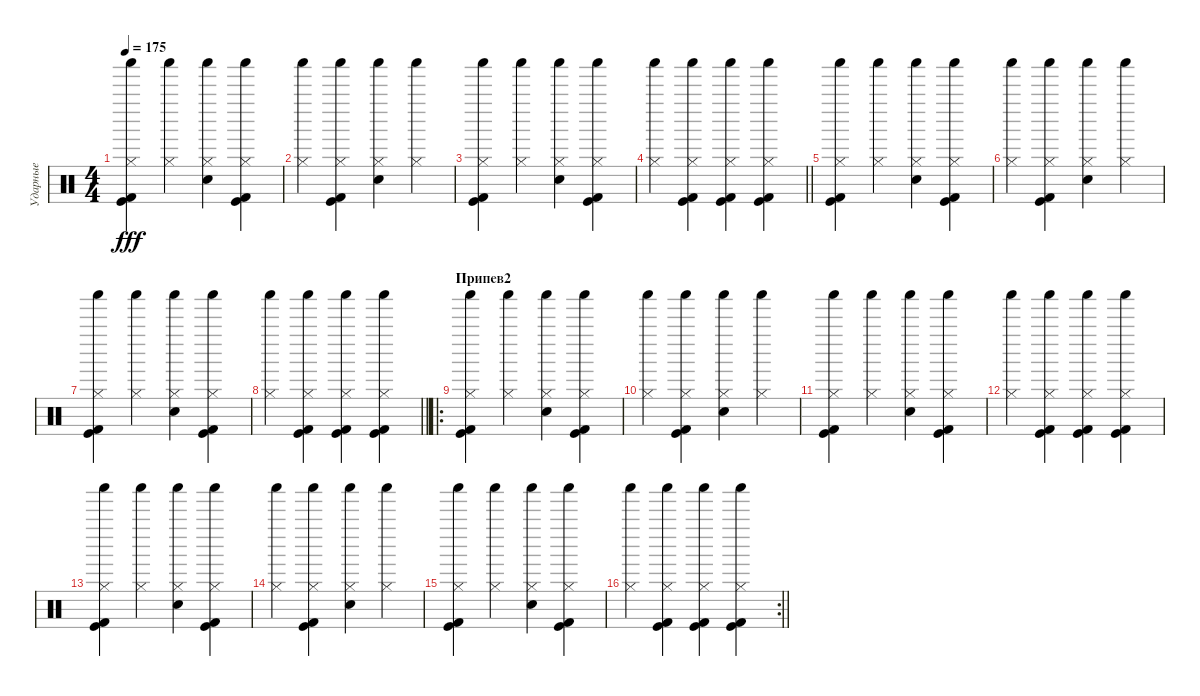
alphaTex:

\track ("Ударные" "Ударные") {instrument percussion}
\staff {score}
\articulation defaults
\ts (4 4)
\tempo 175
\clef neutral
\ks c
("Kick (hit) 2" "Hi-Hat (closed)" "Kick (hit)" "Shaker (hit)").4{dy fff} ("Hi-Hat (closed)" "Shaker (hit)").4 ("Hi-Hat (closed)" "Snare (hit) 2" "Shaker (hit)").4 ("Kick (hit) 2" "Hi-Hat (closed)" "Kick (hit)" "Shaker (hit)").4 |
("Hi-Hat (closed)" "Shaker (hit)").4 ("Kick (hit) 2" "Hi-Hat (closed)" "Kick (hit)" "Shaker (hit)").4 ("Hi-Hat (closed)" "Snare (hit) 2" "Shaker (hit)").4 ("Hi-Hat (closed)" "Shaker (hit)").4 |
("Kick (hit) 2" "Hi-Hat (closed)" "Kick (hit)" "Shaker (hit)").4 ("Hi-Hat (closed)" "Shaker (hit)").4 ("Hi-Hat (closed)" "Snare (hit) 2" "Shaker (hit)").4 ("Kick (hit) 2" "Hi-Hat (closed)" "Kick (hit)" "Shaker (hit)").4 |
\barLineRight lightlight
("Hi-Hat (closed)" "Shaker (hit)").4 ("Kick (hit) 2" "Hi-Hat (closed)" "Kick (hit)" "Shaker (hit)").4 ("Kick (hit) 2" "Hi-Hat (closed)" "Kick (hit)" "Shaker (hit)").4 ("Kick (hit) 2" "Hi-Hat (closed)" "Kick (hit)" "Shaker (hit)").4 |
("Kick (hit) 2" "Hi-Hat (closed)" "Kick (hit)" "Shaker (hit)").4 ("Hi-Hat (closed)" "Shaker (hit)").4 ("Hi-Hat (closed)" "Snare (hit) 2" "Shaker (hit)").4 ("Kick (hit) 2" "Hi-Hat (closed)" "Kick (hit)" "Shaker (hit)").4 |
("Hi-Hat (closed)" "Shaker (hit)").4 ("Kick (hit) 2" "Hi-Hat (closed)" "Kick (hit)" "Shaker (hit)").4 ("Hi-Hat (closed)" "Snare (hit) 2" "Shaker (hit)").4 ("Hi-Hat (closed)" "Shaker (hit)").4 |
("Kick (hit) 2" "Hi-Hat (closed)" "Kick (hit)" "Shaker (hit)").4 ("Hi-Hat (closed)" "Shaker (hit)").4 ("Hi-Hat (closed)" "Snare (hit) 2" "Shaker (hit)").4 ("Kick (hit) 2" "Hi-Hat (closed)" "Kick (hit)" "Shaker (hit)").4 |
\barLineRight lightlight
("Hi-Hat (closed)" "Shaker (hit)").4 ("Kick (hit) 2" "Hi-Hat (closed)" "Kick (hit)" "Shaker (hit)").4 ("Kick (hit) 2" "Hi-Hat (closed)" "Kick (hit)" "Shaker (hit)").4 ("Kick (hit) 2" "Hi-Hat (closed)" "Kick (hit)" "Shaker (hit)").4 |
\ro
\section ("" "Припев2")
("Kick (hit) 2" "Hi-Hat (closed)" "Kick (hit)" "Shaker (hit)").4 ("Hi-Hat (closed)" "Shaker (hit)").4 ("Hi-Hat (closed)" "Snare (hit) 2" "Shaker (hit)").4 ("Kick (hit) 2" "Hi-Hat (closed)" "Kick (hit)" "Shaker (hit)").4 |
("Hi-Hat (closed)" "Shaker (hit)").4 ("Kick (hit) 2" "Hi-Hat (closed)" "Kick (hit)" "Shaker (hit)").4 ("Hi-Hat (closed)" "Snare (hit) 2" "Shaker (hit)").4 ("Hi-Hat (closed)" "Shaker (hit)").4 |
("Kick (hit) 2" "Hi-Hat (closed)" "Kick (hit)" "Shaker (hit)").4 ("Hi-Hat (closed)" "Shaker (hit)").4 ("Hi-Hat (closed)" "Snare (hit) 2" "Shaker (hit)").4 ("Kick (hit) 2" "Hi-Hat (closed)" "Kick (hit)" "Shaker (hit)").4 |
("Hi-Hat (closed)" "Shaker (hit)").4 ("Kick (hit) 2" "Hi-Hat (closed)" "Kick (hit)" "Shaker (hit)").4 ("Kick (hit) 2" "Hi-Hat (closed)" "Kick (hit)" "Shaker (hit)").4 ("Kick (hit) 2" "Hi-Hat (closed)" "Kick (hit)" "Shaker (hit)").4 |
("Kick (hit) 2" "Hi-Hat (closed)" "Kick (hit)" "Shaker (hit)").4 ("Hi-Hat (closed)" "Shaker (hit)").4 ("Hi-Hat (closed)" "Snare (hit) 2" "Shaker (hit)").4 ("Kick (hit) 2" "Hi-Hat (closed)" "Kick (hit)" "Shaker (hit)").4 |
("Hi-Hat (closed)" "Shaker (hit)").4 ("Kick (hit) 2" "Hi-Hat (closed)" "Kick (hit)" "Shaker (hit)").4 ("Hi-Hat (closed)" "Snare (hit) 2" "Shaker (hit)").4 ("Hi-Hat (closed)" "Shaker (hit)").4 |
("Kick (hit) 2" "Hi-Hat (closed)" "Kick (hit)" "Shaker (hit)").4 ("Hi-Hat (closed)" "Shaker (hit)").4 ("Hi-Hat (closed)" "Snare (hit) 2" "Shaker (hit)").4 ("Kick (hit) 2" "Hi-Hat (closed)" "Kick (hit)" "Shaker (hit)").4 |
\rc 2
\barLineRight lightlight
("Hi-Hat (closed)" "Shaker (hit)").4 ("Kick (hit) 2" "Hi-Hat (closed)" "Kick (hit)" "Shaker (hit)").4 ("Kick (hit) 2" "Hi-Hat (closed)" "Kick (hit)" "Shaker (hit)").4 ("Kick (hit) 2" "Hi-Hat (closed)" "Kick (hit)" "Shaker (hit)").4
